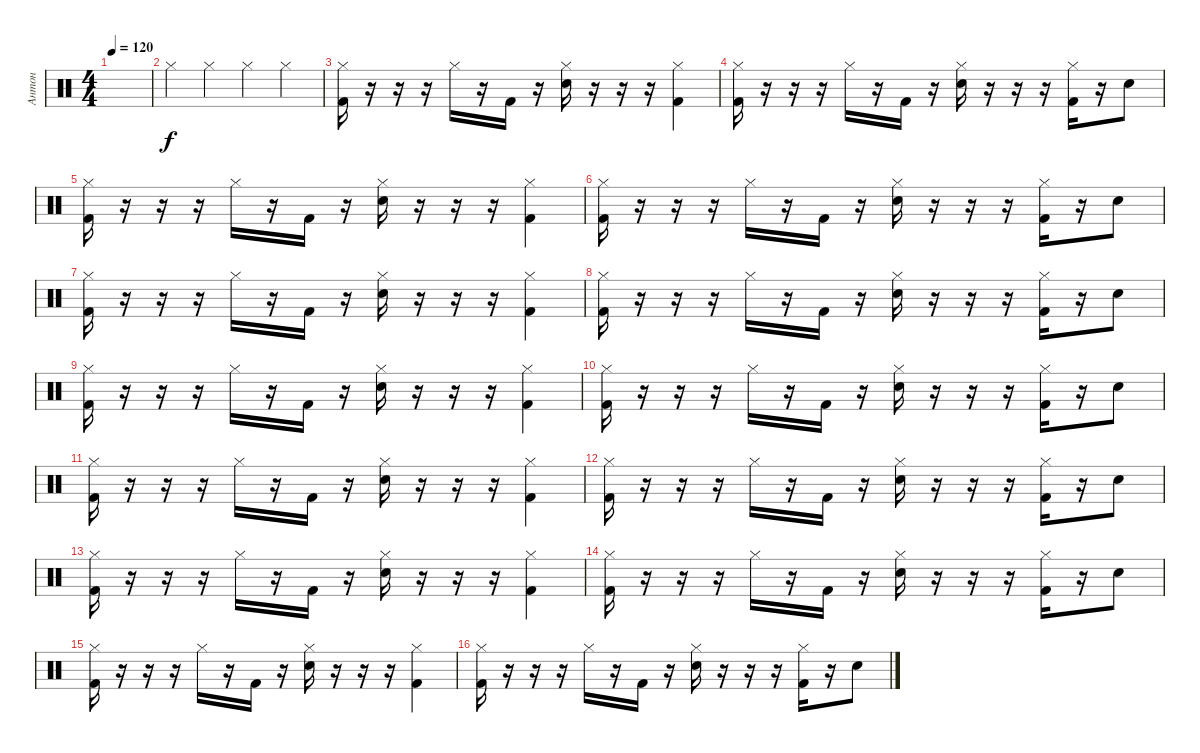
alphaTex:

\track ("Антон" "Антон") {instrument percussion}
\staff {score}
\articulation defaults
\ts (4 4)
\tempo 120
\clef neutral
\ks c
|
"Hi-Hat (closed)".4 "Hi-Hat (closed)".4 "Hi-Hat (closed)".4 "Hi-Hat (closed)".4 |
("Hi-Hat (closed)" "Kick (hit) 2").16 r.16 r.16 r.16 "Hi-Hat (closed)".16 r.16 "Kick (hit) 2".16 r.16 ("Hi-Hat (closed)" "Electric Snare (hit)").16 r.16 r.16 r.16 ("Hi-Hat (closed)" "Kick (hit) 2").4 |
("Hi-Hat (closed)" "Kick (hit) 2").16 r.16 r.16 r.16 "Hi-Hat (closed)".16 r.16 "Kick (hit) 2".16 r.16 ("Hi-Hat (closed)" "Electric Snare (hit)").16 r.16 r.16 r.16 ("Hi-Hat (closed)" "Kick (hit) 2").16 r.16 "Electric Snare (hit)".8 |
("Hi-Hat (closed)" "Kick (hit) 2").16 r.16 r.16 r.16 "Hi-Hat (closed)".16 r.16 "Kick (hit) 2".16 r.16 ("Hi-Hat (closed)" "Electric Snare (hit)").16 r.16 r.16 r.16 ("Hi-Hat (closed)" "Kick (hit) 2").4 |
("Hi-Hat (closed)" "Kick (hit) 2").16 r.16 r.16 r.16 "Hi-Hat (closed)".16 r.16 "Kick (hit) 2".16 r.16 ("Hi-Hat (closed)" "Electric Snare (hit)").16 r.16 r.16 r.16 ("Hi-Hat (closed)" "Kick (hit) 2").16 r.16 "Electric Snare (hit)".8 |
("Hi-Hat (closed)" "Kick (hit) 2").16 r.16 r.16 r.16 "Hi-Hat (closed)".16 r.16 "Kick (hit) 2".16 r.16 ("Hi-Hat (closed)" "Electric Snare (hit)").16 r.16 r.16 r.16 ("Hi-Hat (closed)" "Kick (hit) 2").4 |
("Hi-Hat (closed)" "Kick (hit) 2").16 r.16 r.16 r.16 "Hi-Hat (closed)".16 r.16 "Kick (hit) 2".16 r.16 ("Hi-Hat (closed)" "Electric Snare (hit)").16 r.16 r.16 r.16 ("Hi-Hat (closed)" "Kick (hit) 2").16 r.16 "Electric Snare (hit)".8 |
("Hi-Hat (closed)" "Kick (hit) 2").16 r.16 r.16 r.16 "Hi-Hat (closed)".16 r.16 "Kick (hit) 2".16 r.16 ("Hi-Hat (closed)" "Electric Snare (hit)").16 r.16 r.16 r.16 ("Hi-Hat (closed)" "Kick (hit) 2").4 |
("Hi-Hat (closed)" "Kick (hit) 2").16 r.16 r.16 r.16 "Hi-Hat (closed)".16 r.16 "Kick (hit) 2".16 r.16 ("Hi-Hat (closed)" "Electric Snare (hit)").16 r.16 r.16 r.16 ("Hi-Hat (closed)" "Kick (hit) 2").16 r.16 "Electric Snare (hit)".8 |
("Hi-Hat (closed)" "Kick (hit) 2").16 r.16 r.16 r.16 "Hi-Hat (closed)".16 r.16 "Kick (hit) 2".16 r.16 ("Hi-Hat (closed)" "Electric Snare (hit)").16 r.16 r.16 r.16 ("Hi-Hat (closed)" "Kick (hit) 2").4 |
("Hi-Hat (closed)" "Kick (hit) 2").16 r.16 r.16 r.16 "Hi-Hat (closed)".16 r.16 "Kick (hit) 2".16 r.16 ("Hi-Hat (closed)" "Electric Snare (hit)").16 r.16 r.16 r.16 ("Hi-Hat (closed)" "Kick (hit) 2").16 r.16 "Electric Snare (hit)".8 |
("Hi-Hat (closed)" "Kick (hit) 2").16 r.16 r.16 r.16 "Hi-Hat (closed)".16 r.16 "Kick (hit) 2".16 r.16 ("Hi-Hat (closed)" "Electric Snare (hit)").16 r.16 r.16 r.16 ("Hi-Hat (closed)" "Kick (hit) 2").4 |
("Hi-Hat (closed)" "Kick (hit) 2").16 r.16 r.16 r.16 "Hi-Hat (closed)".16 r.16 "Kick (hit) 2".16 r.16 ("Hi-Hat (closed)" "Electric Snare (hit)").16 r.16 r.16 r.16 ("Hi-Hat (closed)" "Kick (hit) 2").16 r.16 "Electric Snare (hit)".8 |
("Hi-Hat (closed)" "Kick (hit) 2").16 r.16 r.16 r.16 "Hi-Hat (closed)".16 r.16 "Kick (hit) 2".16 r.16 ("Hi-Hat (closed)" "Electric Snare (hit)").16 r.16 r.16 r.16 ("Hi-Hat (closed)" "Kick (hit) 2").4 |
("Hi-Hat (closed)" "Kick (hit) 2").16 r.16 r.16 r.16 "Hi-Hat (closed)".16 r.16 "Kick (hit) 2".16 r.16 ("Hi-Hat (closed)" "Electric Snare (hit)").16 r.16 r.16 r.16 ("Hi-Hat (closed)" "Kick (hit) 2").16 r.16 "Electric Snare (hit)".8
